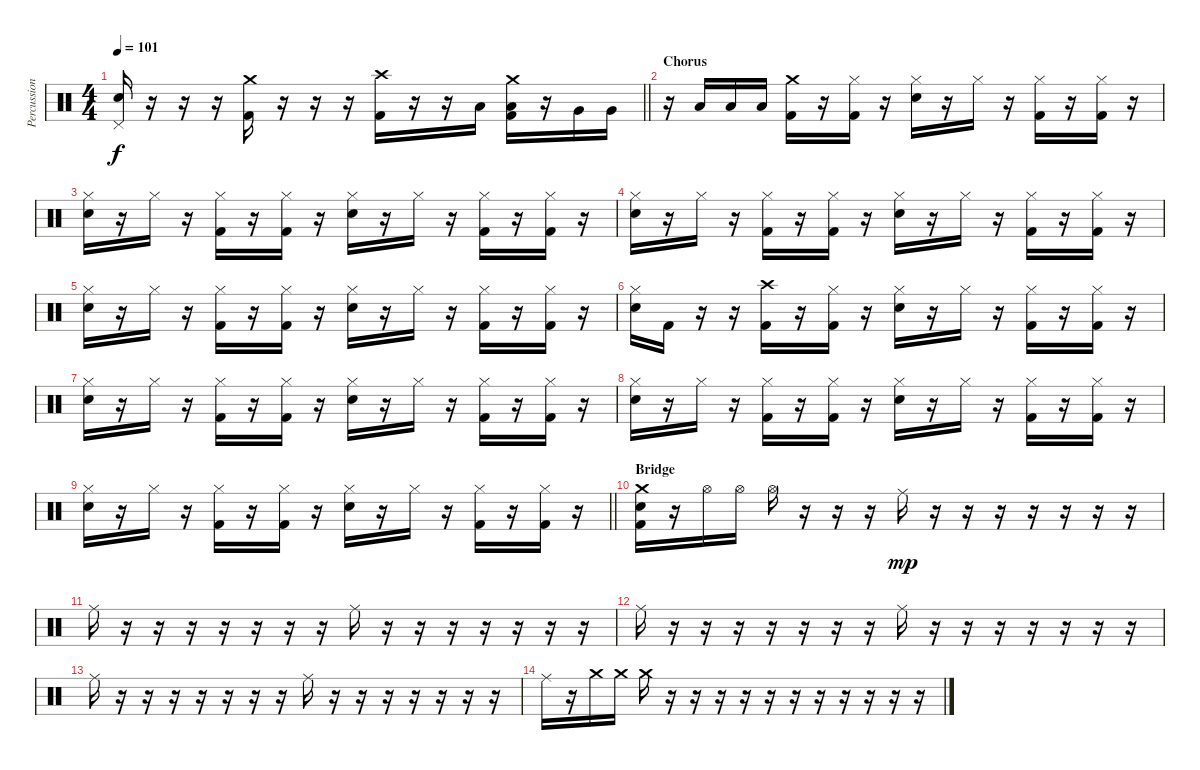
\track ("Percussion (Chris)" "Percussion") {instrument percussion}
\staff {score}
\articulation defaults
\ts (4 4)
\tempo 101
\clef neutral
\barLineRight lightlight
\ks c
("Pedal Hi-Hat (hit)" "Snare (hit) 2").16{dy f} r.16 r.16 r.16 ("Crash medium (hit)" "Kick (hit) 2").16 r.16 r.16 r.16 ("Crash high (hit)" "Kick (hit) 2").16 r.16 r.16 "Low Tom (hit)".16 ("Crash medium (hit)" "Low Tom (hit)" "Kick (hit) 2").16 r.16 "Very Low Tom (hit)".16 "Very Low Tom (hit)".16 |
\section ("" "Chorus")
r.16 "Low Floor Tom (hit)".16 "Low Floor Tom (hit)".16 "Low Floor Tom (hit)".16 ("Crash medium (hit)" "Kick (hit) 2").16 r.16 ("Hi-Hat (closed)" "Kick (hit) 2").16 r.16 ("Hi-Hat (closed)" "Snare (hit) 2").16 r.16 "Hi-Hat (closed)".16 r.16 ("Hi-Hat (closed)" "Kick (hit) 2").16 r.16 ("Hi-Hat (closed)" "Kick (hit) 2").16 r.16 |
("Hi-Hat (closed)" "Snare (hit) 2").16 r.16 "Hi-Hat (closed)".16 r.16 ("Hi-Hat (closed)" "Kick (hit) 2").16 r.16 ("Hi-Hat (closed)" "Kick (hit) 2").16 r.16 ("Hi-Hat (closed)" "Snare (hit) 2").16 r.16 "Hi-Hat (closed)".16 r.16 ("Hi-Hat (closed)" "Kick (hit) 2").16 r.16 ("Hi-Hat (closed)" "Kick (hit) 2").16 r.16 |
("Hi-Hat (closed)" "Snare (hit) 2").16 r.16 "Hi-Hat (closed)".16 r.16 ("Hi-Hat (closed)" "Kick (hit) 2").16 r.16 ("Hi-Hat (closed)" "Kick (hit) 2").16 r.16 ("Hi-Hat (closed)" "Snare (hit) 2").16 r.16 "Hi-Hat (closed)".16 r.16 ("Hi-Hat (closed)" "Kick (hit) 2").16 r.16 ("Hi-Hat (closed)" "Kick (hit) 2").16 r.16 |
("Hi-Hat (closed)" "Snare (hit) 2").16 r.16 "Hi-Hat (closed)".16 r.16 ("Hi-Hat (closed)" "Kick (hit) 2").16 r.16 ("Hi-Hat (closed)" "Kick (hit) 2").16 r.16 ("Hi-Hat (closed)" "Snare (hit) 2").16 r.16 "Hi-Hat (closed)".16 r.16 ("Hi-Hat (closed)" "Kick (hit) 2").16 r.16 ("Hi-Hat (closed)" "Kick (hit) 2").16 r.16 |
("Hi-Hat (closed)" "Snare (hit) 2").16 "Kick (hit) 2".16 r.16 r.16 ("Crash high (hit)" "Kick (hit) 2").16 r.16 ("Hi-Hat (closed)" "Kick (hit) 2").16 r.16 ("Hi-Hat (closed)" "Snare (hit) 2").16 r.16 "Hi-Hat (closed)".16 r.16 ("Hi-Hat (closed)" "Kick (hit) 2").16 r.16 ("Hi-Hat (closed)" "Kick (hit) 2").16 r.16 |
("Hi-Hat (closed)" "Snare (hit) 2").16 r.16 "Hi-Hat (closed)".16 r.16 ("Hi-Hat (closed)" "Kick (hit) 2").16 r.16 ("Hi-Hat (closed)" "Kick (hit) 2").16 r.16 ("Hi-Hat (closed)" "Snare (hit) 2").16 r.16 "Hi-Hat (closed)".16 r.16 ("Hi-Hat (closed)" "Kick (hit) 2").16 r.16 ("Hi-Hat (closed)" "Kick (hit) 2").16 r.16 |
("Hi-Hat (closed)" "Snare (hit) 2").16 r.16 "Hi-Hat (closed)".16 r.16 ("Hi-Hat (closed)" "Kick (hit) 2").16 r.16 ("Hi-Hat (closed)" "Kick (hit) 2").16 r.16 ("Hi-Hat (closed)" "Snare (hit) 2").16 r.16 "Hi-Hat (closed)".16 r.16 ("Hi-Hat (closed)" "Kick (hit) 2").16 r.16 ("Hi-Hat (closed)" "Kick (hit) 2").16 r.16 |
\barLineRight lightlight
("Hi-Hat (closed)" "Snare (hit) 2").16 r.16 "Hi-Hat (closed)".16 r.16 ("Hi-Hat (closed)" "Kick (hit) 2").16 r.16 ("Hi-Hat (closed)" "Kick (hit) 2").16 r.16 ("Hi-Hat (closed)" "Snare (hit) 2").16 r.16 "Hi-Hat (closed)".16 r.16 ("Hi-Hat (closed)" "Kick (hit) 2").16 r.16 ("Hi-Hat (closed)" "Kick (hit) 2").16 r.16 |
\section ("" "Bridge")
("Crash medium (hit)" "Snare (hit) 2" "Kick (hit) 2").16 r.16 "Hi-Hat (open)".16 "Hi-Hat (open)".16 "Hi-Hat (open)".16 r.16 r.16 r.16 "Ride (middle)".16{dy mp} r.16 r.16 r.16 r.16 r.16 r.16 r.16 |
"Ride (middle)".16 r.16 r.16 r.16 r.16 r.16 r.16 r.16 "Ride (middle)".16 r.16 r.16 r.16 r.16 r.16 r.16 r.16 |
"Ride (middle)".16 r.16 r.16 r.16 r.16 r.16 r.16 r.16 "Ride (middle)".16 r.16 r.16 r.16 r.16 r.16 r.16 r.16 |
"Ride (middle)".16 r.16 r.16 r.16 r.16 r.16 r.16 r.16 "Ride (middle)".16 r.16 r.16 r.16 r.16 r.16 r.16 r.16 |
"Ride (middle)".16 r.16 "Crash medium (hit)".16 "Crash medium (hit)".16 "Crash medium (hit)".16 r.16 r.16 r.16 r.16 r.16 r.16 r.16 r.16 r.16 r.16 r.16
